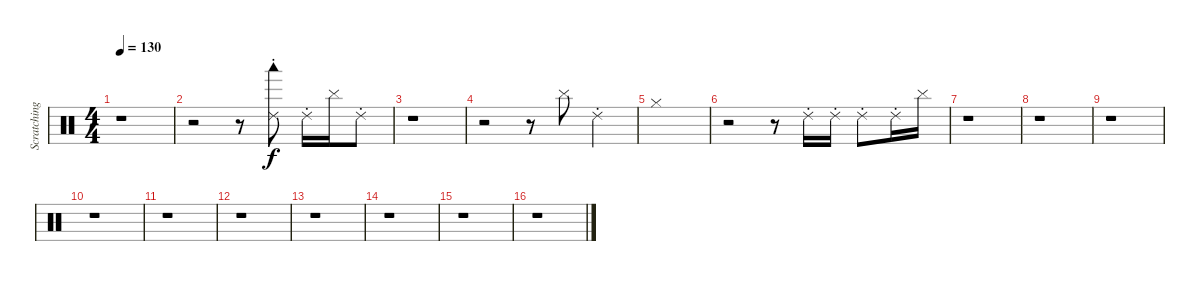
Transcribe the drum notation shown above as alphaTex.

\track ("Scratching" "Scratching") {instrument percussion}
\staff {score}
\articulation defaults
\ts (4 4)
\tempo 130
\clef neutral
\ks c
r.1{dy f} |
r.2 r.8 ("Ride (choke) 2" "Woodblock low (hit)").8 "Ride (choke) 2".16 "Cymbal (hit)".16 "Ride (choke) 2".8 |
r.1 |
r.2 r.8 "Cymbal (hit)".8 "Ride (choke) 2".4 |
"Hi-Hat (closed)".1 |
r.2 r.8 "Ride (choke) 2".16 "Ride (choke) 2".16 "Ride (choke) 2".8 "Ride (choke) 2".16 "Cymbal (hit)".16 |
r.1 |
r.1 |
r.1 |
r.1 |
r.1 |
r.1 |
r.1 |
r.1 |
r.1 |
r.1
